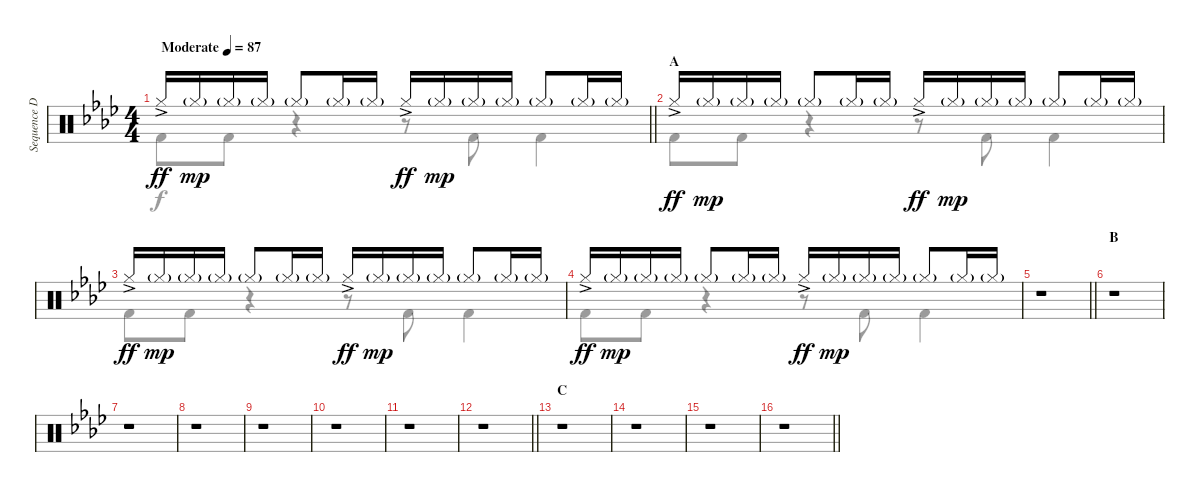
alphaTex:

\track ("Sequence Drums" "Sequence D") {instrument percussion}
\staff {score}
\articulation defaults
\voice
\ts (4 4)
\tempo (87 "Moderate")
\clef neutral
\barLineRight lightlight
\ks ab "Hi-Hat (closed)"{ac}.16{dy ff} "Hi-Hat (closed)"{g}.16{dy mp} "Hi-Hat (closed)"{g}.16 "Hi-Hat (closed)"{g}.16 "Hi-Hat (closed)"{g}.8 "Hi-Hat (closed)"{g}.16 "Hi-Hat (closed)"{g}.16 "Hi-Hat (closed)"{ac}.16{dy ff} "Hi-Hat (closed)"{g}.16{dy mp} "Hi-Hat (closed)"{g}.16 "Hi-Hat (closed)"{g}.16 "Hi-Hat (closed)"{g}.8 "Hi-Hat (closed)"{g}.16 "Hi-Hat (closed)"{g}.16
|
\section ("" "A")
"Hi-Hat (closed)"{ac}.16{dy ff} "Hi-Hat (closed)"{g}.16{dy mp} "Hi-Hat (closed)"{g}.16 "Hi-Hat (closed)"{g}.16 "Hi-Hat (closed)"{g}.8 "Hi-Hat (closed)"{g}.16 "Hi-Hat (closed)"{g}.16 "Hi-Hat (closed)"{ac}.16{dy ff} "Hi-Hat (closed)"{g}.16{dy mp} "Hi-Hat (closed)"{g}.16 "Hi-Hat (closed)"{g}.16 "Hi-Hat (closed)"{g}.8 "Hi-Hat (closed)"{g}.16 "Hi-Hat (closed)"{g}.16 |
"Hi-Hat (closed)"{ac}.16{dy ff} "Hi-Hat (closed)"{g}.16{dy mp} "Hi-Hat (closed)"{g}.16 "Hi-Hat (closed)"{g}.16 "Hi-Hat (closed)"{g}.8 "Hi-Hat (closed)"{g}.16 "Hi-Hat (closed)"{g}.16 "Hi-Hat (closed)"{ac}.16{dy ff} "Hi-Hat (closed)"{g}.16{dy mp} "Hi-Hat (closed)"{g}.16 "Hi-Hat (closed)"{g}.16 "Hi-Hat (closed)"{g}.8 "Hi-Hat (closed)"{g}.16 "Hi-Hat (closed)"{g}.16 |
"Hi-Hat (closed)"{ac}.16{dy ff} "Hi-Hat (closed)"{g}.16{dy mp} "Hi-Hat (closed)"{g}.16 "Hi-Hat (closed)"{g}.16 "Hi-Hat (closed)"{g}.8 "Hi-Hat (closed)"{g}.16 "Hi-Hat (closed)"{g}.16 "Hi-Hat (closed)"{ac}.16{dy ff} "Hi-Hat (closed)"{g}.16{dy mp} "Hi-Hat (closed)"{g}.16 "Hi-Hat (closed)"{g}.16 "Hi-Hat (closed)"{g}.8 "Hi-Hat (closed)"{g}.16 "Hi-Hat (closed)"{g}.16 |
\barLineRight lightlight
r.1 |
\section ("" "B")
r.1 |
r.1 |
r.1 |
r.1 |
r.1 |
r.1 |
\barLineRight lightlight
r.1 |
\section ("" "C")
r.1 |
r.1 |
r.1 |
\barLineRight lightlight
r.1
\voice
\clef neutral
\ottava regular
\simile none
\barLineRight lightlight
\ks ab "Kick (hit) 2".8{dy f} "Kick (hit) 2".8
r.4 r.8 "Kick (hit) 2".8 "Kick (hit) 2".4 |
"Kick (hit) 2".8 "Kick (hit) 2".8 r.4 r.8 "Kick (hit) 2".8 "Kick (hit) 2".4 |
"Kick (hit) 2".8 "Kick (hit) 2".8 r.4 r.8 "Kick (hit) 2".8 "Kick (hit) 2".4 |
"Kick (hit) 2".8 "Kick (hit) 2".8 r.4 r.8 "Kick (hit) 2".8 "Kick (hit) 2".4 |
\barLineRight lightlight
|
|
|
|
|
|
|
\barLineRight lightlight
|
|
|
|
\barLineRight lightlight
